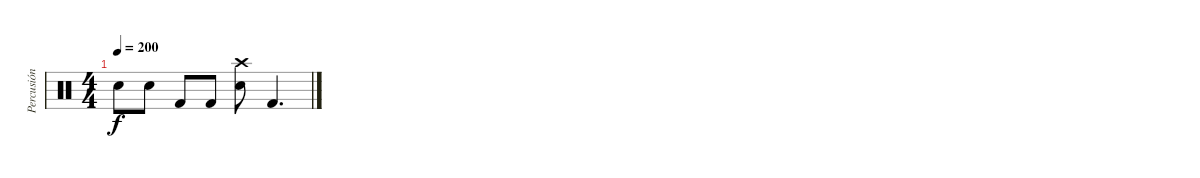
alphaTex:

\track ("Percusión" "Percusión") {instrument percussion}
\staff {score}
\articulation defaults
\ts (4 4)
\tempo 200
\clef neutral
\ks c "Snare (hit)"{t}.8{dy f} "Snare (hit) 2".8 "Kick (hit) 2".8 "Kick (hit) 2".8
("Crash high (hit)" "Snare (hit) 2").8 "Kick (hit) 2".4{d}
